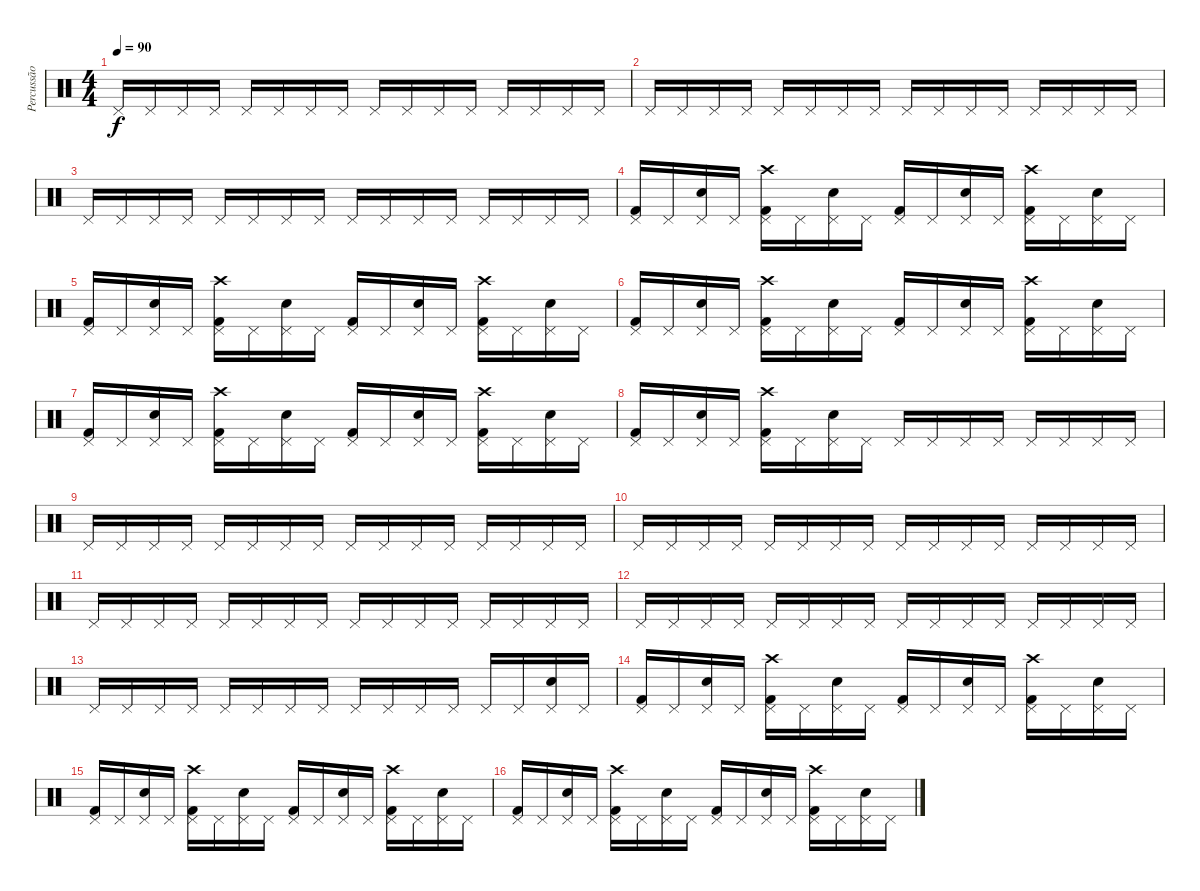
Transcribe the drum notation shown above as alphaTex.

\track ("Percussão" "Percussão") {instrument percussion}
\staff {score}
\articulation defaults
\ts (4 4)
\tempo 90
\clef neutral
\ks c "Pedal Hi-Hat (hit)".16{dy f} "Pedal Hi-Hat (hit)".16 "Pedal Hi-Hat (hit)".16 "Pedal Hi-Hat (hit)".16 "Pedal Hi-Hat (hit)".16 "Pedal Hi-Hat (hit)".16 "Pedal Hi-Hat (hit)".16 "Pedal Hi-Hat (hit)".16 "Pedal Hi-Hat (hit)".16 "Pedal Hi-Hat (hit)".16 "Pedal Hi-Hat (hit)".16 "Pedal Hi-Hat (hit)".16 "Pedal Hi-Hat (hit)".16 "Pedal Hi-Hat (hit)".16 "Pedal Hi-Hat (hit)".16 "Pedal Hi-Hat (hit)".16
|
"Pedal Hi-Hat (hit)".16 "Pedal Hi-Hat (hit)".16 "Pedal Hi-Hat (hit)".16 "Pedal Hi-Hat (hit)".16 "Pedal Hi-Hat (hit)".16 "Pedal Hi-Hat (hit)".16 "Pedal Hi-Hat (hit)".16 "Pedal Hi-Hat (hit)".16 "Pedal Hi-Hat (hit)".16 "Pedal Hi-Hat (hit)".16 "Pedal Hi-Hat (hit)".16 "Pedal Hi-Hat (hit)".16 "Pedal Hi-Hat (hit)".16 "Pedal Hi-Hat (hit)".16 "Pedal Hi-Hat (hit)".16 "Pedal Hi-Hat (hit)".16 |
"Pedal Hi-Hat (hit)".16 "Pedal Hi-Hat (hit)".16 "Pedal Hi-Hat (hit)".16 "Pedal Hi-Hat (hit)".16 "Pedal Hi-Hat (hit)".16 "Pedal Hi-Hat (hit)".16 "Pedal Hi-Hat (hit)".16 "Pedal Hi-Hat (hit)".16 "Pedal Hi-Hat (hit)".16 "Pedal Hi-Hat (hit)".16 "Pedal Hi-Hat (hit)".16 "Pedal Hi-Hat (hit)".16 "Pedal Hi-Hat (hit)".16 "Pedal Hi-Hat (hit)".16 "Pedal Hi-Hat (hit)".16 "Pedal Hi-Hat (hit)".16 |
("Pedal Hi-Hat (hit)" "Kick (hit) 2").16 "Pedal Hi-Hat (hit)".16 ("Pedal Hi-Hat (hit)" "Electric Snare (hit)").16 "Pedal Hi-Hat (hit)".16 ("Crash high (hit)" "Pedal Hi-Hat (hit)" "Kick (hit) 2").16 "Pedal Hi-Hat (hit)".16 ("Pedal Hi-Hat (hit)" "Electric Snare (hit)").16 "Pedal Hi-Hat (hit)".16 ("Pedal Hi-Hat (hit)" "Kick (hit) 2").16 "Pedal Hi-Hat (hit)".16 ("Pedal Hi-Hat (hit)" "Electric Snare (hit)").16 "Pedal Hi-Hat (hit)".16 ("Crash high (hit)" "Pedal Hi-Hat (hit)" "Kick (hit) 2").16 "Pedal Hi-Hat (hit)".16 ("Pedal Hi-Hat (hit)" "Electric Snare (hit)").16 "Pedal Hi-Hat (hit)".16 |
("Pedal Hi-Hat (hit)" "Kick (hit) 2").16 "Pedal Hi-Hat (hit)".16 ("Pedal Hi-Hat (hit)" "Electric Snare (hit)").16 "Pedal Hi-Hat (hit)".16 ("Crash high (hit)" "Pedal Hi-Hat (hit)" "Kick (hit) 2").16 "Pedal Hi-Hat (hit)".16 ("Pedal Hi-Hat (hit)" "Electric Snare (hit)").16 "Pedal Hi-Hat (hit)".16 ("Pedal Hi-Hat (hit)" "Kick (hit) 2").16 "Pedal Hi-Hat (hit)".16 ("Pedal Hi-Hat (hit)" "Electric Snare (hit)").16 "Pedal Hi-Hat (hit)".16 ("Crash high (hit)" "Pedal Hi-Hat (hit)" "Kick (hit) 2").16 "Pedal Hi-Hat (hit)".16 ("Pedal Hi-Hat (hit)" "Electric Snare (hit)").16 "Pedal Hi-Hat (hit)".16 |
("Pedal Hi-Hat (hit)" "Kick (hit) 2").16 "Pedal Hi-Hat (hit)".16 ("Pedal Hi-Hat (hit)" "Electric Snare (hit)").16 "Pedal Hi-Hat (hit)".16 ("Crash high (hit)" "Pedal Hi-Hat (hit)" "Kick (hit) 2").16 "Pedal Hi-Hat (hit)".16 ("Pedal Hi-Hat (hit)" "Electric Snare (hit)").16 "Pedal Hi-Hat (hit)".16 ("Pedal Hi-Hat (hit)" "Kick (hit) 2").16 "Pedal Hi-Hat (hit)".16 ("Pedal Hi-Hat (hit)" "Electric Snare (hit)").16 "Pedal Hi-Hat (hit)".16 ("Crash high (hit)" "Pedal Hi-Hat (hit)" "Kick (hit) 2").16 "Pedal Hi-Hat (hit)".16 ("Pedal Hi-Hat (hit)" "Electric Snare (hit)").16 "Pedal Hi-Hat (hit)".16 |
("Pedal Hi-Hat (hit)" "Kick (hit) 2").16 "Pedal Hi-Hat (hit)".16 ("Pedal Hi-Hat (hit)" "Electric Snare (hit)").16 "Pedal Hi-Hat (hit)".16 ("Crash high (hit)" "Pedal Hi-Hat (hit)" "Kick (hit) 2").16 "Pedal Hi-Hat (hit)".16 ("Pedal Hi-Hat (hit)" "Electric Snare (hit)").16 "Pedal Hi-Hat (hit)".16 ("Pedal Hi-Hat (hit)" "Kick (hit) 2").16 "Pedal Hi-Hat (hit)".16 ("Pedal Hi-Hat (hit)" "Electric Snare (hit)").16 "Pedal Hi-Hat (hit)".16 ("Crash high (hit)" "Pedal Hi-Hat (hit)" "Kick (hit) 2").16 "Pedal Hi-Hat (hit)".16 ("Pedal Hi-Hat (hit)" "Electric Snare (hit)").16 "Pedal Hi-Hat (hit)".16 |
("Pedal Hi-Hat (hit)" "Kick (hit) 2").16 "Pedal Hi-Hat (hit)".16 ("Pedal Hi-Hat (hit)" "Electric Snare (hit)").16 "Pedal Hi-Hat (hit)".16 ("Crash high (hit)" "Pedal Hi-Hat (hit)" "Kick (hit) 2").16 "Pedal Hi-Hat (hit)".16 ("Pedal Hi-Hat (hit)" "Electric Snare (hit)").16 "Pedal Hi-Hat (hit)".16 "Pedal Hi-Hat (hit)".16 "Pedal Hi-Hat (hit)".16 "Pedal Hi-Hat (hit)".16 "Pedal Hi-Hat (hit)".16 "Pedal Hi-Hat (hit)".16 "Pedal Hi-Hat (hit)".16 "Pedal Hi-Hat (hit)".16 "Pedal Hi-Hat (hit)".16 |
"Pedal Hi-Hat (hit)".16 "Pedal Hi-Hat (hit)".16 "Pedal Hi-Hat (hit)".16 "Pedal Hi-Hat (hit)".16 "Pedal Hi-Hat (hit)".16 "Pedal Hi-Hat (hit)".16 "Pedal Hi-Hat (hit)".16 "Pedal Hi-Hat (hit)".16 "Pedal Hi-Hat (hit)".16 "Pedal Hi-Hat (hit)".16 "Pedal Hi-Hat (hit)".16 "Pedal Hi-Hat (hit)".16 "Pedal Hi-Hat (hit)".16 "Pedal Hi-Hat (hit)".16 "Pedal Hi-Hat (hit)".16 "Pedal Hi-Hat (hit)".16 |
"Pedal Hi-Hat (hit)".16 "Pedal Hi-Hat (hit)".16 "Pedal Hi-Hat (hit)".16 "Pedal Hi-Hat (hit)".16 "Pedal Hi-Hat (hit)".16 "Pedal Hi-Hat (hit)".16 "Pedal Hi-Hat (hit)".16 "Pedal Hi-Hat (hit)".16 "Pedal Hi-Hat (hit)".16 "Pedal Hi-Hat (hit)".16 "Pedal Hi-Hat (hit)".16 "Pedal Hi-Hat (hit)".16 "Pedal Hi-Hat (hit)".16 "Pedal Hi-Hat (hit)".16 "Pedal Hi-Hat (hit)".16 "Pedal Hi-Hat (hit)".16 |
"Pedal Hi-Hat (hit)".16 "Pedal Hi-Hat (hit)".16 "Pedal Hi-Hat (hit)".16 "Pedal Hi-Hat (hit)".16 "Pedal Hi-Hat (hit)".16 "Pedal Hi-Hat (hit)".16 "Pedal Hi-Hat (hit)".16 "Pedal Hi-Hat (hit)".16 "Pedal Hi-Hat (hit)".16 "Pedal Hi-Hat (hit)".16 "Pedal Hi-Hat (hit)".16 "Pedal Hi-Hat (hit)".16 "Pedal Hi-Hat (hit)".16 "Pedal Hi-Hat (hit)".16 "Pedal Hi-Hat (hit)".16 "Pedal Hi-Hat (hit)".16 |
"Pedal Hi-Hat (hit)".16 "Pedal Hi-Hat (hit)".16 "Pedal Hi-Hat (hit)".16 "Pedal Hi-Hat (hit)".16 "Pedal Hi-Hat (hit)".16 "Pedal Hi-Hat (hit)".16 "Pedal Hi-Hat (hit)".16 "Pedal Hi-Hat (hit)".16 "Pedal Hi-Hat (hit)".16 "Pedal Hi-Hat (hit)".16 "Pedal Hi-Hat (hit)".16 "Pedal Hi-Hat (hit)".16 "Pedal Hi-Hat (hit)".16 "Pedal Hi-Hat (hit)".16 "Pedal Hi-Hat (hit)".16 "Pedal Hi-Hat (hit)".16 |
"Pedal Hi-Hat (hit)".16 "Pedal Hi-Hat (hit)".16 "Pedal Hi-Hat (hit)".16 "Pedal Hi-Hat (hit)".16 "Pedal Hi-Hat (hit)".16 "Pedal Hi-Hat (hit)".16 "Pedal Hi-Hat (hit)".16 "Pedal Hi-Hat (hit)".16 "Pedal Hi-Hat (hit)".16 "Pedal Hi-Hat (hit)".16 "Pedal Hi-Hat (hit)".16 "Pedal Hi-Hat (hit)".16 "Pedal Hi-Hat (hit)".16 "Pedal Hi-Hat (hit)".16 ("Pedal Hi-Hat (hit)" "Electric Snare (hit)").16 "Pedal Hi-Hat (hit)".16 |
("Pedal Hi-Hat (hit)" "Kick (hit) 2").16 "Pedal Hi-Hat (hit)".16 ("Pedal Hi-Hat (hit)" "Electric Snare (hit)").16 "Pedal Hi-Hat (hit)".16 ("Crash high (hit)" "Pedal Hi-Hat (hit)" "Kick (hit) 2").16 "Pedal Hi-Hat (hit)".16 ("Pedal Hi-Hat (hit)" "Electric Snare (hit)").16 "Pedal Hi-Hat (hit)".16 ("Pedal Hi-Hat (hit)" "Kick (hit) 2").16 "Pedal Hi-Hat (hit)".16 ("Pedal Hi-Hat (hit)" "Electric Snare (hit)").16 "Pedal Hi-Hat (hit)".16 ("Crash high (hit)" "Pedal Hi-Hat (hit)" "Kick (hit) 2").16 "Pedal Hi-Hat (hit)".16 ("Pedal Hi-Hat (hit)" "Electric Snare (hit)").16 "Pedal Hi-Hat (hit)".16 |
("Pedal Hi-Hat (hit)" "Kick (hit) 2").16 "Pedal Hi-Hat (hit)".16 ("Pedal Hi-Hat (hit)" "Electric Snare (hit)").16 "Pedal Hi-Hat (hit)".16 ("Crash high (hit)" "Pedal Hi-Hat (hit)" "Kick (hit) 2").16 "Pedal Hi-Hat (hit)".16 ("Pedal Hi-Hat (hit)" "Electric Snare (hit)").16 "Pedal Hi-Hat (hit)".16 ("Pedal Hi-Hat (hit)" "Kick (hit) 2").16 "Pedal Hi-Hat (hit)".16 ("Pedal Hi-Hat (hit)" "Electric Snare (hit)").16 "Pedal Hi-Hat (hit)".16 ("Crash high (hit)" "Pedal Hi-Hat (hit)" "Kick (hit) 2").16 "Pedal Hi-Hat (hit)".16 ("Pedal Hi-Hat (hit)" "Electric Snare (hit)").16 "Pedal Hi-Hat (hit)".16 |
("Pedal Hi-Hat (hit)" "Kick (hit) 2").16 "Pedal Hi-Hat (hit)".16 ("Pedal Hi-Hat (hit)" "Electric Snare (hit)").16 "Pedal Hi-Hat (hit)".16 ("Crash high (hit)" "Pedal Hi-Hat (hit)" "Kick (hit) 2").16 "Pedal Hi-Hat (hit)".16 ("Pedal Hi-Hat (hit)" "Electric Snare (hit)").16 "Pedal Hi-Hat (hit)".16 ("Pedal Hi-Hat (hit)" "Kick (hit) 2").16 "Pedal Hi-Hat (hit)".16 ("Pedal Hi-Hat (hit)" "Electric Snare (hit)").16 "Pedal Hi-Hat (hit)".16 ("Crash high (hit)" "Pedal Hi-Hat (hit)" "Kick (hit) 2").16 "Pedal Hi-Hat (hit)".16 ("Pedal Hi-Hat (hit)" "Electric Snare (hit)").16 "Pedal Hi-Hat (hit)".16
